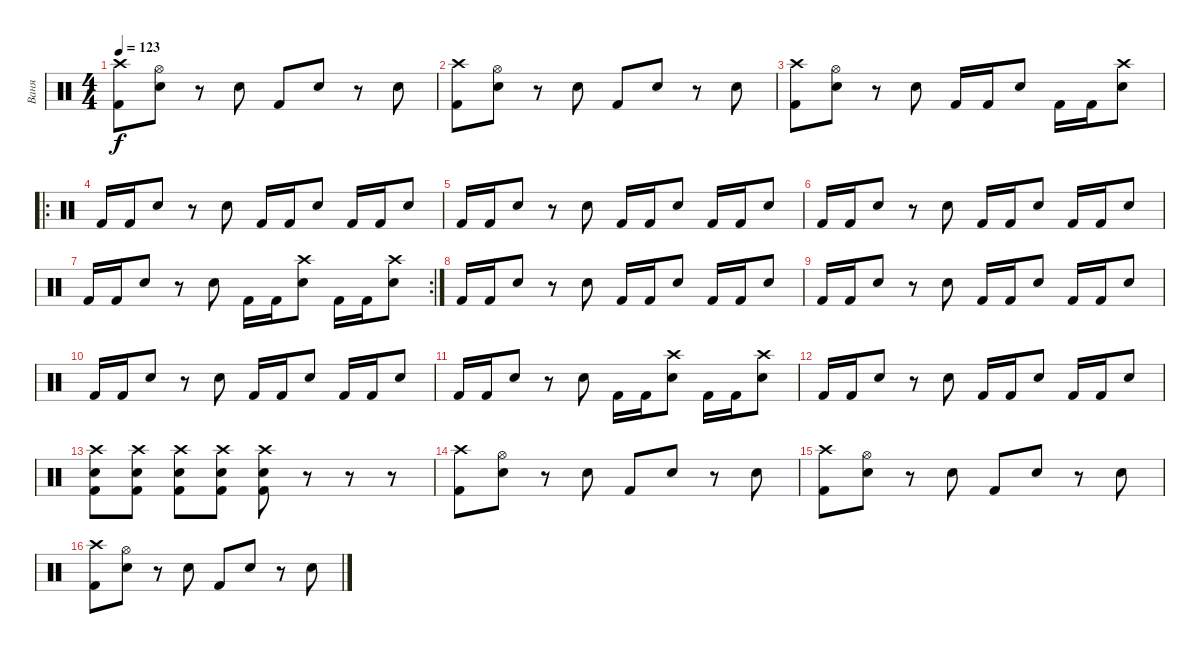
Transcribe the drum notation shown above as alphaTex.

\track ("Ваня" "Ваня") {instrument percussion}
\staff {score}
\articulation defaults
\ts (4 4)
\tempo 123
\clef neutral
\ks c
("Crash high (hit)" "Kick (hit) 2").8{dy f} ("Hi-Hat (open)" "Snare (hit) 2").8 r.8 "Snare (hit) 2".8 "Kick (hit) 2".8 "Snare (hit) 2".8 r.8 "Snare (hit) 2".8 |
("Crash high (hit)" "Kick (hit) 2").8 ("Hi-Hat (open)" "Snare (hit) 2").8 r.8 "Snare (hit) 2".8 "Kick (hit) 2".8 "Snare (hit) 2".8 r.8 "Snare (hit) 2".8 |
("Crash high (hit)" "Kick (hit) 2").8 ("Hi-Hat (open)" "Snare (hit) 2").8 r.8 "Snare (hit) 2".8 "Kick (hit) 2".16 "Kick (hit) 2".16 "Snare (hit) 2".8 "Kick (hit) 2".16 "Kick (hit) 2".16 ("Crash high (hit)" "Snare (hit) 2").8 |
\ro "Kick (hit) 2".16 "Kick (hit) 2".16 "Snare (hit) 2".8
r.8 "Snare (hit) 2".8 "Kick (hit) 2".16 "Kick (hit) 2".16 "Snare (hit) 2".8 "Kick (hit) 2".16 "Kick (hit) 2".16 "Snare (hit) 2".8 |
"Kick (hit) 2".16 "Kick (hit) 2".16 "Snare (hit) 2".8 r.8 "Snare (hit) 2".8 "Kick (hit) 2".16 "Kick (hit) 2".16 "Snare (hit) 2".8 "Kick (hit) 2".16 "Kick (hit) 2".16 "Snare (hit) 2".8 |
"Kick (hit) 2".16 "Kick (hit) 2".16 "Snare (hit) 2".8 r.8 "Snare (hit) 2".8 "Kick (hit) 2".16 "Kick (hit) 2".16 "Snare (hit) 2".8 "Kick (hit) 2".16 "Kick (hit) 2".16 "Snare (hit) 2".8 |
\rc 2 "Kick (hit) 2".16 "Kick (hit) 2".16 "Snare (hit) 2".8
r.8 "Snare (hit) 2".8 "Kick (hit) 2".16 "Kick (hit) 2".16 ("Crash high (hit)" "Snare (hit) 2").8 "Kick (hit) 2".16 "Kick (hit) 2".16 ("Crash high (hit)" "Snare (hit) 2").8 |
"Kick (hit) 2".16 "Kick (hit) 2".16 "Snare (hit) 2".8 r.8 "Snare (hit) 2".8 "Kick (hit) 2".16 "Kick (hit) 2".16 "Snare (hit) 2".8 "Kick (hit) 2".16 "Kick (hit) 2".16 "Snare (hit) 2".8 |
"Kick (hit) 2".16 "Kick (hit) 2".16 "Snare (hit) 2".8 r.8 "Snare (hit) 2".8 "Kick (hit) 2".16 "Kick (hit) 2".16 "Snare (hit) 2".8 "Kick (hit) 2".16 "Kick (hit) 2".16 "Snare (hit) 2".8 |
"Kick (hit) 2".16 "Kick (hit) 2".16 "Snare (hit) 2".8 r.8 "Snare (hit) 2".8 "Kick (hit) 2".16 "Kick (hit) 2".16 "Snare (hit) 2".8 "Kick (hit) 2".16 "Kick (hit) 2".16 "Snare (hit) 2".8 |
"Kick (hit) 2".16 "Kick (hit) 2".16 "Snare (hit) 2".8 r.8 "Snare (hit) 2".8 "Kick (hit) 2".16 "Kick (hit) 2".16 ("Crash high (hit)" "Snare (hit) 2").8 "Kick (hit) 2".16 "Kick (hit) 2".16 ("Crash high (hit)" "Snare (hit) 2").8 |
"Kick (hit) 2".16 "Kick (hit) 2".16 "Snare (hit) 2".8 r.8 "Snare (hit) 2".8 "Kick (hit) 2".16 "Kick (hit) 2".16 "Snare (hit) 2".8 "Kick (hit) 2".16 "Kick (hit) 2".16 "Snare (hit) 2".8 |
("Crash high (hit)" "Kick (hit) 2" "Snare (hit) 2").8 ("Crash high (hit)" "Kick (hit) 2" "Snare (hit) 2").8 ("Crash high (hit)" "Kick (hit) 2" "Snare (hit) 2").8 ("Crash high (hit)" "Kick (hit) 2" "Snare (hit) 2").8 ("Crash high (hit)" "Kick (hit) 2" "Snare (hit) 2").8 r.8 r.8 r.8 |
("Crash high (hit)" "Kick (hit) 2").8 ("Hi-Hat (open)" "Snare (hit) 2").8 r.8 "Snare (hit) 2".8 "Kick (hit) 2".8 "Snare (hit) 2".8 r.8 "Snare (hit) 2".8 |
("Crash high (hit)" "Kick (hit) 2").8 ("Hi-Hat (open)" "Snare (hit) 2").8 r.8 "Snare (hit) 2".8 "Kick (hit) 2".8 "Snare (hit) 2".8 r.8 "Snare (hit) 2".8 |
("Crash high (hit)" "Kick (hit) 2").8 ("Hi-Hat (open)" "Snare (hit) 2").8 r.8 "Snare (hit) 2".8 "Kick (hit) 2".8 "Snare (hit) 2".8 r.8 "Snare (hit) 2".8
